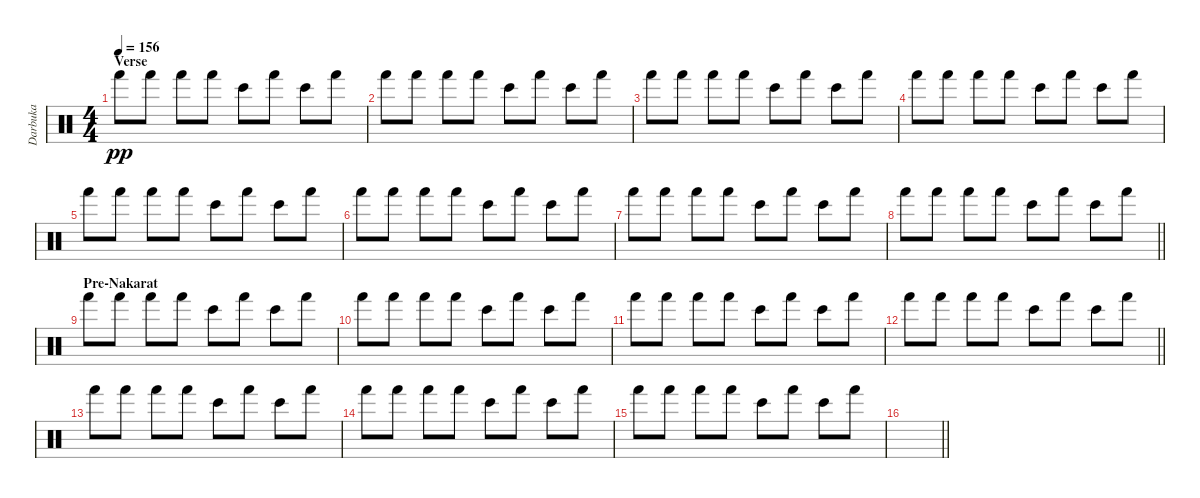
\track ("Darbuka" "Darbuka") {instrument percussion}
\staff {score}
\articulation defaults
\ts (4 4)
\section ("" "Verse")
\tempo 156
\clef neutral
\ks c "Hand (hit)".8{dy pp} "Hand (hit)".8 "Hand (hit)".8 "Hand (hit)".8 "Bongo High (hit)".8 "Hand (hit)".8 "Bongo High (hit)".8 "Hand (hit)".8
|
"Hand (hit)".8 "Hand (hit)".8 "Hand (hit)".8 "Hand (hit)".8 "Bongo High (hit)".8 "Hand (hit)".8 "Bongo High (hit)".8 "Hand (hit)".8 |
"Hand (hit)".8 "Hand (hit)".8 "Hand (hit)".8 "Hand (hit)".8 "Bongo High (hit)".8 "Hand (hit)".8 "Bongo High (hit)".8 "Hand (hit)".8 |
"Hand (hit)".8 "Hand (hit)".8 "Hand (hit)".8 "Hand (hit)".8 "Bongo High (hit)".8 "Hand (hit)".8 "Bongo High (hit)".8 "Hand (hit)".8 |
"Hand (hit)".8 "Hand (hit)".8 "Hand (hit)".8 "Hand (hit)".8 "Bongo High (hit)".8 "Hand (hit)".8 "Bongo High (hit)".8 "Hand (hit)".8 |
"Hand (hit)".8 "Hand (hit)".8 "Hand (hit)".8 "Hand (hit)".8 "Bongo High (hit)".8 "Hand (hit)".8 "Bongo High (hit)".8 "Hand (hit)".8 |
"Hand (hit)".8 "Hand (hit)".8 "Hand (hit)".8 "Hand (hit)".8 "Bongo High (hit)".8 "Hand (hit)".8 "Bongo High (hit)".8 "Hand (hit)".8 |
\barLineRight lightlight "Hand (hit)".8 "Hand (hit)".8 "Hand (hit)".8 "Hand (hit)".8 "Bongo High (hit)".8 "Hand (hit)".8 "Bongo High (hit)".8 "Hand (hit)".8
|
\section ("" "Pre-Nakarat")
"Hand (hit)".8 "Hand (hit)".8 "Hand (hit)".8 "Hand (hit)".8 "Bongo High (hit)".8 "Hand (hit)".8 "Bongo High (hit)".8 "Hand (hit)".8 |
"Hand (hit)".8 "Hand (hit)".8 "Hand (hit)".8 "Hand (hit)".8 "Bongo High (hit)".8 "Hand (hit)".8 "Bongo High (hit)".8 "Hand (hit)".8 |
"Hand (hit)".8 "Hand (hit)".8 "Hand (hit)".8 "Hand (hit)".8 "Bongo High (hit)".8 "Hand (hit)".8 "Bongo High (hit)".8 "Hand (hit)".8 |
\barLineRight lightlight "Hand (hit)".8 "Hand (hit)".8 "Hand (hit)".8 "Hand (hit)".8 "Bongo High (hit)".8 "Hand (hit)".8 "Bongo High (hit)".8 "Hand (hit)".8
|
"Hand (hit)".8 "Hand (hit)".8 "Hand (hit)".8 "Hand (hit)".8 "Bongo High (hit)".8 "Hand (hit)".8 "Bongo High (hit)".8 "Hand (hit)".8 |
"Hand (hit)".8 "Hand (hit)".8 "Hand (hit)".8 "Hand (hit)".8 "Bongo High (hit)".8 "Hand (hit)".8 "Bongo High (hit)".8 "Hand (hit)".8 |
"Hand (hit)".8 "Hand (hit)".8 "Hand (hit)".8 "Hand (hit)".8 "Bongo High (hit)".8 "Hand (hit)".8 "Bongo High (hit)".8 "Hand (hit)".8 |
\barLineRight lightlight
